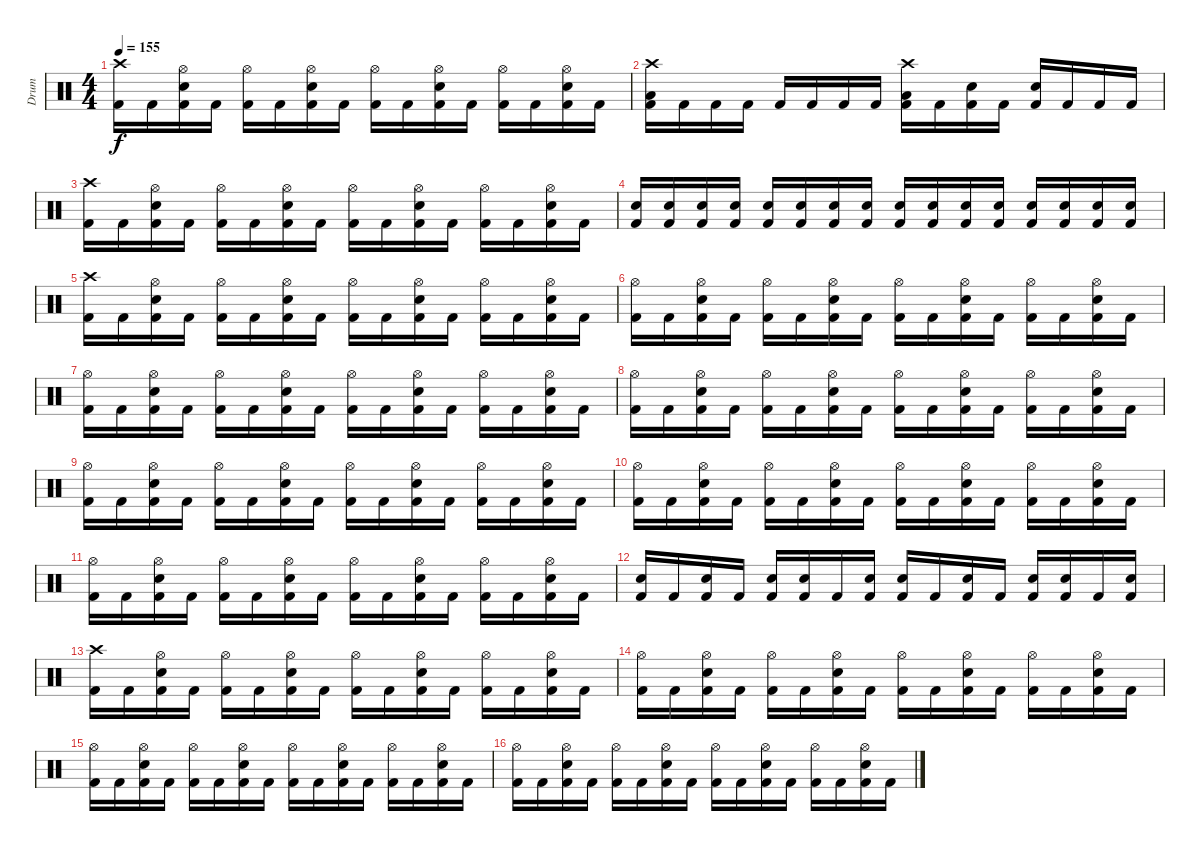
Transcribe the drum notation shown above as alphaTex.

\track ("Drum" "Drum") {instrument percussion}
\staff {score}
\articulation defaults
\ts (4 4)
\tempo 155
\clef neutral
\ks c
("Crash high (hit)" "Kick (hit) 2").16{dy f} "Kick (hit) 2".16 ("Hi-Hat (open)" "Electric Snare (hit)" "Kick (hit) 2").16 "Kick (hit) 2".16 ("Hi-Hat (open)" "Kick (hit) 2").16 "Kick (hit) 2".16 ("Hi-Hat (open)" "Electric Snare (hit)" "Kick (hit) 2").16 "Kick (hit) 2".16 ("Hi-Hat (open)" "Kick (hit) 2").16 "Kick (hit) 2".16 ("Hi-Hat (open)" "Electric Snare (hit)" "Kick (hit) 2").16 "Kick (hit) 2".16 ("Hi-Hat (open)" "Kick (hit) 2").16 "Kick (hit) 2".16 ("Hi-Hat (open)" "Electric Snare (hit)" "Kick (hit) 2").16 "Kick (hit) 2".16 |
("Crash high (hit)" "Low Tom (hit)" "Kick (hit) 2").16 "Kick (hit) 2".16 "Kick (hit) 2".16 "Kick (hit) 2".16 "Kick (hit) 2".16 "Kick (hit) 2".16 "Kick (hit) 2".16 "Kick (hit) 2".16 ("Crash high (hit)" "Low Tom (hit)" "Kick (hit) 2").16 "Kick (hit) 2".16 ("Electric Snare (hit)" "Kick (hit) 2").16 "Kick (hit) 2".16 ("Electric Snare (hit)" "Kick (hit) 2").16 "Kick (hit) 2".16 "Kick (hit) 2".16 "Kick (hit) 2".16 |
("Crash high (hit)" "Kick (hit) 2").16 "Kick (hit) 2".16 ("Hi-Hat (open)" "Electric Snare (hit)" "Kick (hit) 2").16 "Kick (hit) 2".16 ("Hi-Hat (open)" "Kick (hit) 2").16 "Kick (hit) 2".16 ("Hi-Hat (open)" "Electric Snare (hit)" "Kick (hit) 2").16 "Kick (hit) 2".16 ("Hi-Hat (open)" "Kick (hit) 2").16 "Kick (hit) 2".16 ("Hi-Hat (open)" "Electric Snare (hit)" "Kick (hit) 2").16 "Kick (hit) 2".16 ("Hi-Hat (open)" "Kick (hit) 2").16 "Kick (hit) 2".16 ("Hi-Hat (open)" "Electric Snare (hit)" "Kick (hit) 2").16 "Kick (hit) 2".16 |
("Electric Snare (hit)" "Kick (hit) 2").16 ("Electric Snare (hit)" "Kick (hit) 2").16 ("Electric Snare (hit)" "Kick (hit) 2").16 ("Electric Snare (hit)" "Kick (hit) 2").16 ("Electric Snare (hit)" "Kick (hit) 2").16 ("Electric Snare (hit)" "Kick (hit) 2").16 ("Electric Snare (hit)" "Kick (hit) 2").16 ("Electric Snare (hit)" "Kick (hit) 2").16 ("Electric Snare (hit)" "Kick (hit) 2").16 ("Electric Snare (hit)" "Kick (hit) 2").16 ("Electric Snare (hit)" "Kick (hit) 2").16 ("Electric Snare (hit)" "Kick (hit) 2").16 ("Electric Snare (hit)" "Kick (hit) 2").16 ("Electric Snare (hit)" "Kick (hit) 2").16 ("Electric Snare (hit)" "Kick (hit) 2").16 ("Electric Snare (hit)" "Kick (hit) 2").16 |
("Crash high (hit)" "Kick (hit) 2").16 "Kick (hit) 2".16 ("Hi-Hat (open)" "Electric Snare (hit)" "Kick (hit) 2").16 "Kick (hit) 2".16 ("Hi-Hat (open)" "Kick (hit) 2").16 "Kick (hit) 2".16 ("Hi-Hat (open)" "Electric Snare (hit)" "Kick (hit) 2").16 "Kick (hit) 2".16 ("Hi-Hat (open)" "Kick (hit) 2").16 "Kick (hit) 2".16 ("Hi-Hat (open)" "Electric Snare (hit)" "Kick (hit) 2").16 "Kick (hit) 2".16 ("Hi-Hat (open)" "Kick (hit) 2").16 "Kick (hit) 2".16 ("Hi-Hat (open)" "Electric Snare (hit)" "Kick (hit) 2").16 "Kick (hit) 2".16 |
("Hi-Hat (open)" "Kick (hit) 2").16 "Kick (hit) 2".16 ("Hi-Hat (open)" "Electric Snare (hit)" "Kick (hit) 2").16 "Kick (hit) 2".16 ("Hi-Hat (open)" "Kick (hit) 2").16 "Kick (hit) 2".16 ("Hi-Hat (open)" "Electric Snare (hit)" "Kick (hit) 2").16 "Kick (hit) 2".16 ("Hi-Hat (open)" "Kick (hit) 2").16 "Kick (hit) 2".16 ("Hi-Hat (open)" "Electric Snare (hit)" "Kick (hit) 2").16 "Kick (hit) 2".16 ("Hi-Hat (open)" "Kick (hit) 2").16 "Kick (hit) 2".16 ("Hi-Hat (open)" "Electric Snare (hit)" "Kick (hit) 2").16 "Kick (hit) 2".16 |
("Hi-Hat (open)" "Kick (hit) 2").16 "Kick (hit) 2".16 ("Hi-Hat (open)" "Electric Snare (hit)" "Kick (hit) 2").16 "Kick (hit) 2".16 ("Hi-Hat (open)" "Kick (hit) 2").16 "Kick (hit) 2".16 ("Hi-Hat (open)" "Electric Snare (hit)" "Kick (hit) 2").16 "Kick (hit) 2".16 ("Hi-Hat (open)" "Kick (hit) 2").16 "Kick (hit) 2".16 ("Hi-Hat (open)" "Electric Snare (hit)" "Kick (hit) 2").16 "Kick (hit) 2".16 ("Hi-Hat (open)" "Kick (hit) 2").16 "Kick (hit) 2".16 ("Hi-Hat (open)" "Electric Snare (hit)" "Kick (hit) 2").16 "Kick (hit) 2".16 |
("Hi-Hat (open)" "Kick (hit) 2").16 "Kick (hit) 2".16 ("Hi-Hat (open)" "Electric Snare (hit)" "Kick (hit) 2").16 "Kick (hit) 2".16 ("Hi-Hat (open)" "Kick (hit) 2").16 "Kick (hit) 2".16 ("Hi-Hat (open)" "Electric Snare (hit)" "Kick (hit) 2").16 "Kick (hit) 2".16 ("Hi-Hat (open)" "Kick (hit) 2").16 "Kick (hit) 2".16 ("Hi-Hat (open)" "Electric Snare (hit)" "Kick (hit) 2").16 "Kick (hit) 2".16 ("Hi-Hat (open)" "Kick (hit) 2").16 "Kick (hit) 2".16 ("Hi-Hat (open)" "Electric Snare (hit)" "Kick (hit) 2").16 "Kick (hit) 2".16 |
("Hi-Hat (open)" "Kick (hit) 2").16 "Kick (hit) 2".16 ("Hi-Hat (open)" "Electric Snare (hit)" "Kick (hit) 2").16 "Kick (hit) 2".16 ("Hi-Hat (open)" "Kick (hit) 2").16 "Kick (hit) 2".16 ("Hi-Hat (open)" "Electric Snare (hit)" "Kick (hit) 2").16 "Kick (hit) 2".16 ("Hi-Hat (open)" "Kick (hit) 2").16 "Kick (hit) 2".16 ("Hi-Hat (open)" "Electric Snare (hit)" "Kick (hit) 2").16 "Kick (hit) 2".16 ("Hi-Hat (open)" "Kick (hit) 2").16 "Kick (hit) 2".16 ("Hi-Hat (open)" "Electric Snare (hit)" "Kick (hit) 2").16 "Kick (hit) 2".16 |
("Hi-Hat (open)" "Kick (hit) 2").16 "Kick (hit) 2".16 ("Hi-Hat (open)" "Electric Snare (hit)" "Kick (hit) 2").16 "Kick (hit) 2".16 ("Hi-Hat (open)" "Kick (hit) 2").16 "Kick (hit) 2".16 ("Hi-Hat (open)" "Electric Snare (hit)" "Kick (hit) 2").16 "Kick (hit) 2".16 ("Hi-Hat (open)" "Kick (hit) 2").16 "Kick (hit) 2".16 ("Hi-Hat (open)" "Electric Snare (hit)" "Kick (hit) 2").16 "Kick (hit) 2".16 ("Hi-Hat (open)" "Kick (hit) 2").16 "Kick (hit) 2".16 ("Hi-Hat (open)" "Electric Snare (hit)" "Kick (hit) 2").16 "Kick (hit) 2".16 |
("Hi-Hat (open)" "Kick (hit) 2").16 "Kick (hit) 2".16 ("Hi-Hat (open)" "Electric Snare (hit)" "Kick (hit) 2").16 "Kick (hit) 2".16 ("Hi-Hat (open)" "Kick (hit) 2").16 "Kick (hit) 2".16 ("Hi-Hat (open)" "Electric Snare (hit)" "Kick (hit) 2").16 "Kick (hit) 2".16 ("Hi-Hat (open)" "Kick (hit) 2").16 "Kick (hit) 2".16 ("Hi-Hat (open)" "Electric Snare (hit)" "Kick (hit) 2").16 "Kick (hit) 2".16 ("Hi-Hat (open)" "Kick (hit) 2").16 "Kick (hit) 2".16 ("Hi-Hat (open)" "Electric Snare (hit)" "Kick (hit) 2").16 "Kick (hit) 2".16 |
("Electric Snare (hit)" "Kick (hit) 2").16 "Kick (hit) 2".16 ("Electric Snare (hit)" "Kick (hit) 2").16 "Kick (hit) 2".16 ("Electric Snare (hit)" "Kick (hit) 2").16 ("Electric Snare (hit)" "Kick (hit) 2").16 "Kick (hit) 2".16 ("Electric Snare (hit)" "Kick (hit) 2").16 ("Electric Snare (hit)" "Kick (hit) 2").16 "Kick (hit) 2".16 ("Electric Snare (hit)" "Kick (hit) 2").16 "Kick (hit) 2".16 ("Electric Snare (hit)" "Kick (hit) 2").16 ("Electric Snare (hit)" "Kick (hit) 2").16 "Kick (hit) 2".16 ("Electric Snare (hit)" "Kick (hit) 2").16 |
("Crash high (hit)" "Kick (hit) 2").16 "Kick (hit) 2".16 ("Hi-Hat (open)" "Electric Snare (hit)" "Kick (hit) 2").16 "Kick (hit) 2".16 ("Hi-Hat (open)" "Kick (hit) 2").16 "Kick (hit) 2".16 ("Hi-Hat (open)" "Electric Snare (hit)" "Kick (hit) 2").16 "Kick (hit) 2".16 ("Hi-Hat (open)" "Kick (hit) 2").16 "Kick (hit) 2".16 ("Hi-Hat (open)" "Electric Snare (hit)" "Kick (hit) 2").16 "Kick (hit) 2".16 ("Hi-Hat (open)" "Kick (hit) 2").16 "Kick (hit) 2".16 ("Hi-Hat (open)" "Electric Snare (hit)" "Kick (hit) 2").16 "Kick (hit) 2".16 |
("Hi-Hat (open)" "Kick (hit) 2").16 "Kick (hit) 2".16 ("Hi-Hat (open)" "Electric Snare (hit)" "Kick (hit) 2").16 "Kick (hit) 2".16 ("Hi-Hat (open)" "Kick (hit) 2").16 "Kick (hit) 2".16 ("Hi-Hat (open)" "Electric Snare (hit)" "Kick (hit) 2").16 "Kick (hit) 2".16 ("Hi-Hat (open)" "Kick (hit) 2").16 "Kick (hit) 2".16 ("Hi-Hat (open)" "Electric Snare (hit)" "Kick (hit) 2").16 "Kick (hit) 2".16 ("Hi-Hat (open)" "Kick (hit) 2").16 "Kick (hit) 2".16 ("Hi-Hat (open)" "Electric Snare (hit)" "Kick (hit) 2").16 "Kick (hit) 2".16 |
("Hi-Hat (open)" "Kick (hit) 2").16 "Kick (hit) 2".16 ("Hi-Hat (open)" "Electric Snare (hit)" "Kick (hit) 2").16 "Kick (hit) 2".16 ("Hi-Hat (open)" "Kick (hit) 2").16 "Kick (hit) 2".16 ("Hi-Hat (open)" "Electric Snare (hit)" "Kick (hit) 2").16 "Kick (hit) 2".16 ("Hi-Hat (open)" "Kick (hit) 2").16 "Kick (hit) 2".16 ("Hi-Hat (open)" "Electric Snare (hit)" "Kick (hit) 2").16 "Kick (hit) 2".16 ("Hi-Hat (open)" "Kick (hit) 2").16 "Kick (hit) 2".16 ("Hi-Hat (open)" "Electric Snare (hit)" "Kick (hit) 2").16 "Kick (hit) 2".16 |
("Hi-Hat (open)" "Kick (hit) 2").16 "Kick (hit) 2".16 ("Hi-Hat (open)" "Electric Snare (hit)" "Kick (hit) 2").16 "Kick (hit) 2".16 ("Hi-Hat (open)" "Kick (hit) 2").16 "Kick (hit) 2".16 ("Hi-Hat (open)" "Electric Snare (hit)" "Kick (hit) 2").16 "Kick (hit) 2".16 ("Hi-Hat (open)" "Kick (hit) 2").16 "Kick (hit) 2".16 ("Hi-Hat (open)" "Electric Snare (hit)" "Kick (hit) 2").16 "Kick (hit) 2".16 ("Hi-Hat (open)" "Kick (hit) 2").16 "Kick (hit) 2".16 ("Hi-Hat (open)" "Electric Snare (hit)" "Kick (hit) 2").16 "Kick (hit) 2".16
